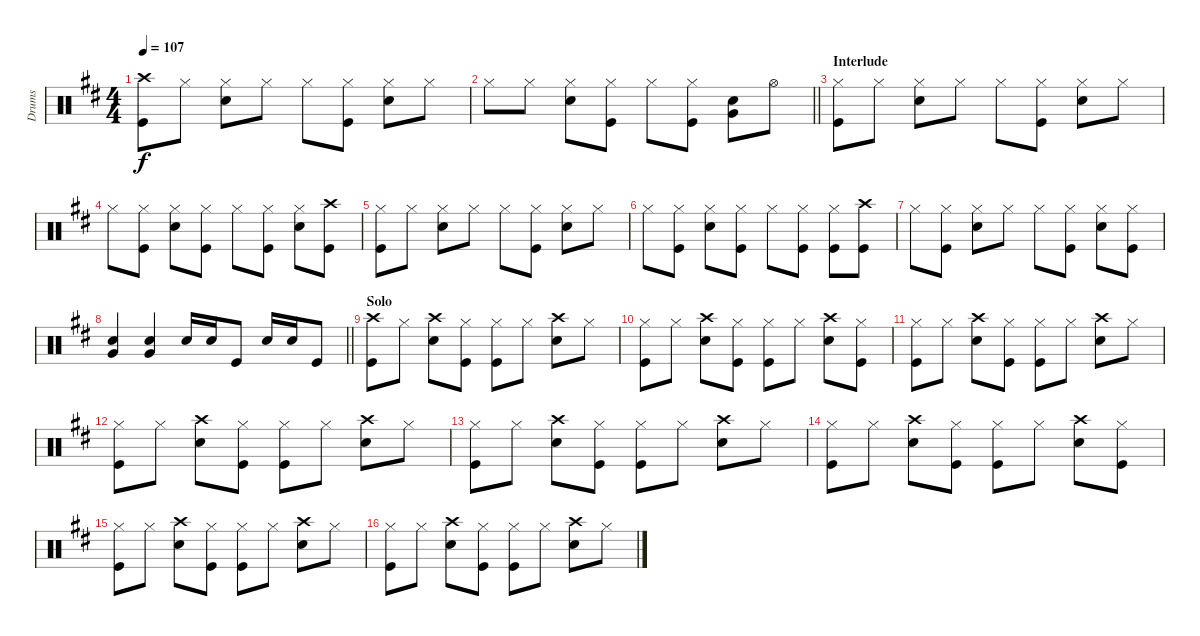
\track ("Drums" "Drums") {instrument percussion}
\staff {score}
\articulation defaults
\ts (4 4)
\tempo 107
\clef neutral
\ks d
("Crash high (hit)" "Kick (hit)").8{dy f} "Hi-Hat (closed)".8 ("Hi-Hat (closed)" "Snare (hit) 2").8 "Hi-Hat (closed)".8 "Hi-Hat (closed)".8 ("Hi-Hat (closed)" "Kick (hit)").8 ("Hi-Hat (closed)" "Snare (hit) 2").8 "Hi-Hat (closed)".8 |
\barLineRight lightlight "Hi-Hat (closed)".8 "Hi-Hat (closed)".8
("Hi-Hat (closed)" "Snare (hit) 2").8 ("Hi-Hat (closed)" "Kick (hit)").8 "Hi-Hat (closed)".8 ("Hi-Hat (closed)" "Kick (hit)").8 ("Snare (hit) 2" "Very Low Tom (hit)").8 "Hi-Hat (open)".8 |
\section ("" "Interlude")
("Hi-Hat (closed)" "Kick (hit)").8 "Hi-Hat (closed)".8 ("Hi-Hat (closed)" "Snare (hit) 2").8 "Hi-Hat (closed)".8 "Hi-Hat (closed)".8 ("Hi-Hat (closed)" "Kick (hit)").8 ("Hi-Hat (closed)" "Snare (hit) 2").8 "Hi-Hat (closed)".8 |
"Hi-Hat (closed)".8 ("Hi-Hat (closed)" "Kick (hit)").8 ("Hi-Hat (closed)" "Snare (hit) 2").8 ("Hi-Hat (closed)" "Kick (hit)").8 "Hi-Hat (closed)".8 ("Hi-Hat (closed)" "Kick (hit)").8 ("Hi-Hat (closed)" "Snare (hit) 2").8 ("Crash high (hit)" "Kick (hit)").8 |
("Hi-Hat (closed)" "Kick (hit)").8 "Hi-Hat (closed)".8 ("Hi-Hat (closed)" "Snare (hit) 2").8 "Hi-Hat (closed)".8 "Hi-Hat (closed)".8 ("Hi-Hat (closed)" "Kick (hit)").8 ("Hi-Hat (closed)" "Snare (hit) 2").8 "Hi-Hat (closed)".8 |
"Hi-Hat (closed)".8 ("Hi-Hat (closed)" "Kick (hit)").8 ("Hi-Hat (closed)" "Snare (hit) 2").8 ("Hi-Hat (closed)" "Kick (hit)").8 "Hi-Hat (closed)".8 ("Hi-Hat (closed)" "Kick (hit)").8 ("Hi-Hat (closed)" "Kick (hit)").8 ("Crash high (hit)" "Kick (hit)").8 |
"Hi-Hat (closed)".8 ("Hi-Hat (closed)" "Kick (hit)").8 ("Hi-Hat (closed)" "Snare (hit) 2").8 "Hi-Hat (closed)".8 "Hi-Hat (closed)".8 ("Hi-Hat (closed)" "Kick (hit)").8 ("Hi-Hat (closed)" "Snare (hit) 2").8 ("Hi-Hat (closed)" "Kick (hit)").8 |
\barLineRight lightlight
("Snare (hit) 2" "Very Low Tom (hit)").4 ("Snare (hit) 2" "Very Low Tom (hit)").4 "Snare (hit) 2".16 "Snare (hit) 2".16 "Kick (hit)".8 "Snare (hit) 2".16 "Snare (hit) 2".16 "Kick (hit)".8 |
\section ("" "Solo")
("Crash high (hit)" "Kick (hit)").8 "Hi-Hat (closed)".8 ("Crash high (hit)" "Snare (hit) 2").8 ("Hi-Hat (closed)" "Kick (hit)").8 ("Hi-Hat (closed)" "Kick (hit)").8 "Hi-Hat (closed)".8 ("Crash high (hit)" "Snare (hit) 2").8 "Hi-Hat (closed)".8 |
("Hi-Hat (closed)" "Kick (hit)").8 "Hi-Hat (closed)".8 ("Crash high (hit)" "Snare (hit) 2").8 ("Hi-Hat (closed)" "Kick (hit)").8 ("Hi-Hat (closed)" "Kick (hit)").8 "Hi-Hat (closed)".8 ("Crash high (hit)" "Snare (hit) 2").8 ("Hi-Hat (closed)" "Kick (hit)").8 |
("Hi-Hat (closed)" "Kick (hit)").8 "Hi-Hat (closed)".8 ("Crash high (hit)" "Snare (hit) 2").8 ("Hi-Hat (closed)" "Kick (hit)").8 ("Hi-Hat (closed)" "Kick (hit)").8 "Hi-Hat (closed)".8 ("Crash high (hit)" "Snare (hit) 2").8 "Hi-Hat (closed)".8 |
("Hi-Hat (closed)" "Kick (hit)").8 "Hi-Hat (closed)".8 ("Crash high (hit)" "Snare (hit) 2").8 ("Hi-Hat (closed)" "Kick (hit)").8 ("Hi-Hat (closed)" "Kick (hit)").8 "Hi-Hat (closed)".8 ("Crash high (hit)" "Snare (hit) 2").8 "Hi-Hat (closed)".8 |
("Hi-Hat (closed)" "Kick (hit)").8 "Hi-Hat (closed)".8 ("Crash high (hit)" "Snare (hit) 2").8 ("Hi-Hat (closed)" "Kick (hit)").8 ("Hi-Hat (closed)" "Kick (hit)").8 "Hi-Hat (closed)".8 ("Crash high (hit)" "Snare (hit) 2").8 "Hi-Hat (closed)".8 |
("Hi-Hat (closed)" "Kick (hit)").8 "Hi-Hat (closed)".8 ("Crash high (hit)" "Snare (hit) 2").8 ("Hi-Hat (closed)" "Kick (hit)").8 ("Hi-Hat (closed)" "Kick (hit)").8 "Hi-Hat (closed)".8 ("Crash high (hit)" "Snare (hit) 2").8 ("Hi-Hat (closed)" "Kick (hit)").8 |
("Hi-Hat (closed)" "Kick (hit)").8 "Hi-Hat (closed)".8 ("Crash high (hit)" "Snare (hit) 2").8 ("Hi-Hat (closed)" "Kick (hit)").8 ("Hi-Hat (closed)" "Kick (hit)").8 "Hi-Hat (closed)".8 ("Crash high (hit)" "Snare (hit) 2").8 "Hi-Hat (closed)".8 |
("Hi-Hat (closed)" "Kick (hit)").8 "Hi-Hat (closed)".8 ("Crash high (hit)" "Snare (hit) 2").8 ("Hi-Hat (closed)" "Kick (hit)").8 ("Hi-Hat (closed)" "Kick (hit)").8 "Hi-Hat (closed)".8 ("Crash high (hit)" "Snare (hit) 2").8 "Hi-Hat (closed)".8
